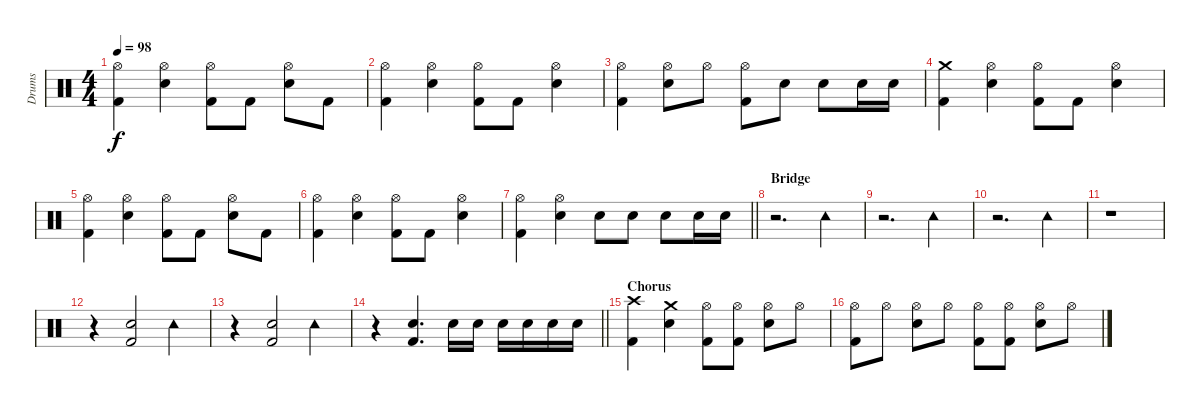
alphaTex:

\track ("Drums" "Drums") {instrument percussion}
\staff {score}
\articulation defaults
\ts (4 4)
\tempo 98
\clef neutral
\ks c
("Hi-Hat (open)" "Kick (hit) 2").4{dy f} ("Hi-Hat (open)" "Snare (hit) 2").4 ("Hi-Hat (open)" "Kick (hit) 2").8 "Kick (hit) 2".8 ("Hi-Hat (open)" "Snare (hit) 2").8 "Kick (hit) 2".8 |
("Hi-Hat (open)" "Kick (hit) 2").4 ("Hi-Hat (open)" "Snare (hit) 2").4 ("Hi-Hat (open)" "Kick (hit) 2").8 "Kick (hit) 2".8 ("Hi-Hat (open)" "Snare (hit) 2").4 |
("Hi-Hat (open)" "Kick (hit) 2").4 ("Hi-Hat (open)" "Snare (hit) 2").8 "Hi-Hat (open)".8 ("Hi-Hat (open)" "Kick (hit) 2").8 "Snare (hit) 2".8 "Snare (hit) 2".8 "Snare (hit) 2".16 "Snare (hit) 2".16 |
("Crash medium (hit)" "Kick (hit) 2").4 ("Hi-Hat (open)" "Snare (hit) 2").4 ("Hi-Hat (open)" "Kick (hit) 2").8 "Kick (hit) 2".8 ("Hi-Hat (open)" "Snare (hit) 2").4 |
("Hi-Hat (open)" "Kick (hit) 2").4 ("Hi-Hat (open)" "Snare (hit) 2").4 ("Hi-Hat (open)" "Kick (hit) 2").8 "Kick (hit) 2".8 ("Hi-Hat (open)" "Snare (hit) 2").8 "Kick (hit) 2".8 |
("Hi-Hat (open)" "Kick (hit) 2").4 ("Hi-Hat (open)" "Snare (hit) 2").4 ("Hi-Hat (open)" "Kick (hit) 2").8 "Kick (hit) 2".8 ("Hi-Hat (open)" "Snare (hit) 2").4 |
\barLineRight lightlight
("Hi-Hat (open)" "Kick (hit) 2").4 ("Hi-Hat (open)" "Snare (hit) 2").4 "Snare (hit) 2".8 "Snare (hit) 2".8 "Snare (hit) 2".8 "Snare (hit) 2".16 "Snare (hit) 2".16 |
\section ("" "Bridge")
r.2{d} "Tambourine (hit)".4 |
r.2{d} "Tambourine (hit)".4 |
r.2{d} "Tambourine (hit)".4 |
r.1 |
r.4 ("Snare (hit) 2" "Kick (hit) 2").2 "Tambourine (hit)".4 |
r.4 ("Snare (hit) 2" "Kick (hit) 2").2 "Tambourine (hit)".4 |
\barLineRight lightlight
r.4 ("Snare (hit) 2" "Kick (hit) 2").4{d} "Snare (hit) 2".16 "Snare (hit) 2".16 "Snare (hit) 2".16 "Snare (hit) 2".16 "Snare (hit) 2".16 "Snare (hit) 2".16 |
\section ("" "Chorus")
("Crash high (hit)" "Kick (hit) 2").4 ("Crash medium (hit)" "Snare (hit) 2").4 ("Hi-Hat (open)" "Kick (hit) 2").8 ("Hi-Hat (open)" "Kick (hit) 2").8 ("Hi-Hat (open)" "Snare (hit) 2").8 "Hi-Hat (open)".8 |
("Hi-Hat (open)" "Kick (hit) 2").8 "Hi-Hat (open)".8 ("Hi-Hat (open)" "Snare (hit) 2").8 "Hi-Hat (open)".8 ("Hi-Hat (open)" "Kick (hit) 2").8 ("Hi-Hat (open)" "Kick (hit) 2").8 ("Hi-Hat (open)" "Snare (hit) 2").8 "Hi-Hat (open)".8
